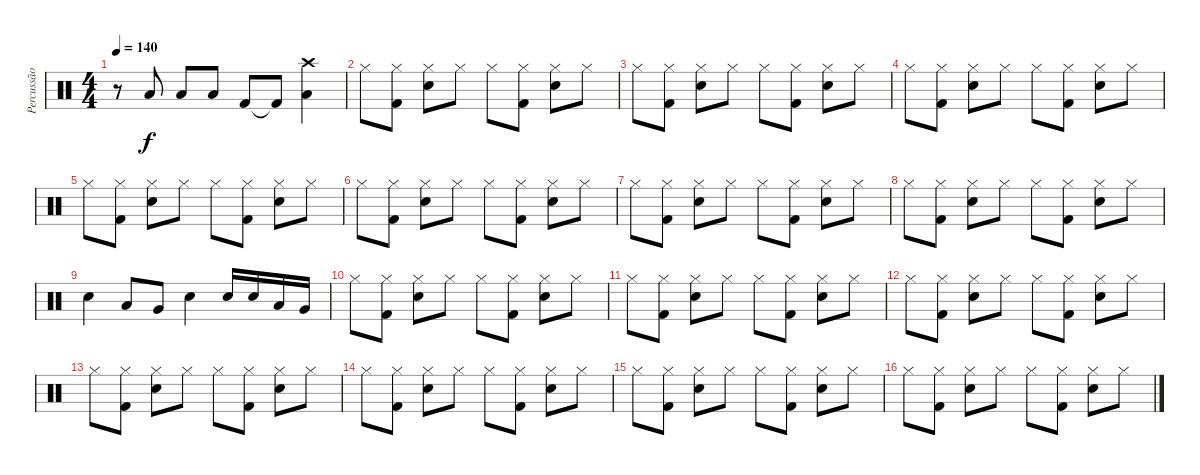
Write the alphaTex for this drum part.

\track ("Percussão" "Percussão") {instrument percussion}
\staff {score}
\articulation defaults
\ts (4 4)
\tempo 140
\clef neutral
\ks c
r.8{dy f} "Low Tom (hit)".8 "Low Tom (hit)".8 "Low Tom (hit)".8 "Kick (hit) 2".8 "Kick (hit) 2"{t}.8 ("Low Tom (hit)" "Crash high (hit)").4 |
"Hi-Hat (closed)".8 ("Kick (hit) 2" "Hi-Hat (closed)").8 ("Snare (hit) 2" "Hi-Hat (closed)").8 "Hi-Hat (closed)".8 "Hi-Hat (closed)".8 ("Kick (hit) 2" "Hi-Hat (closed)").8 ("Hi-Hat (closed)" "Snare (hit) 2").8 "Hi-Hat (closed)".8 |
"Hi-Hat (closed)".8 ("Kick (hit) 2" "Hi-Hat (closed)").8 ("Snare (hit) 2" "Hi-Hat (closed)").8 "Hi-Hat (closed)".8 "Hi-Hat (closed)".8 ("Kick (hit) 2" "Hi-Hat (closed)").8 ("Hi-Hat (closed)" "Snare (hit) 2").8 "Hi-Hat (closed)".8 |
"Hi-Hat (closed)".8 ("Kick (hit) 2" "Hi-Hat (closed)").8 ("Snare (hit) 2" "Hi-Hat (closed)").8 "Hi-Hat (closed)".8 "Hi-Hat (closed)".8 ("Kick (hit) 2" "Hi-Hat (closed)").8 ("Hi-Hat (closed)" "Snare (hit) 2").8 "Hi-Hat (closed)".8 |
"Hi-Hat (closed)".8 ("Kick (hit) 2" "Hi-Hat (closed)").8 ("Snare (hit) 2" "Hi-Hat (closed)").8 "Hi-Hat (closed)".8 "Hi-Hat (closed)".8 ("Kick (hit) 2" "Hi-Hat (closed)").8 ("Hi-Hat (closed)" "Snare (hit) 2").8 "Hi-Hat (closed)".8 |
"Hi-Hat (closed)".8 ("Kick (hit) 2" "Hi-Hat (closed)").8 ("Snare (hit) 2" "Hi-Hat (closed)").8 "Hi-Hat (closed)".8 "Hi-Hat (closed)".8 ("Kick (hit) 2" "Hi-Hat (closed)").8 ("Hi-Hat (closed)" "Snare (hit) 2").8 "Hi-Hat (closed)".8 |
"Hi-Hat (closed)".8 ("Kick (hit) 2" "Hi-Hat (closed)").8 ("Snare (hit) 2" "Hi-Hat (closed)").8 "Hi-Hat (closed)".8 "Hi-Hat (closed)".8 ("Kick (hit) 2" "Hi-Hat (closed)").8 ("Hi-Hat (closed)" "Snare (hit) 2").8 "Hi-Hat (closed)".8 |
"Hi-Hat (closed)".8 ("Kick (hit) 2" "Hi-Hat (closed)").8 ("Snare (hit) 2" "Hi-Hat (closed)").8 "Hi-Hat (closed)".8 "Hi-Hat (closed)".8 ("Kick (hit) 2" "Hi-Hat (closed)").8 ("Hi-Hat (closed)" "Snare (hit) 2").8 "Hi-Hat (closed)".8 |
"Snare (hit) 2".4 "Low Tom (hit)".8 "Very Low Tom (hit)".8 "Snare (hit) 2".4 "Snare (hit) 2".16 "Snare (hit) 2".16 "Low Tom (hit)".16 "Very Low Tom (hit)".16 |
"Hi-Hat (closed)".8 ("Kick (hit) 2" "Hi-Hat (closed)").8 ("Snare (hit) 2" "Hi-Hat (closed)").8 "Hi-Hat (closed)".8 "Hi-Hat (closed)".8 ("Kick (hit) 2" "Hi-Hat (closed)").8 ("Hi-Hat (closed)" "Snare (hit) 2").8 "Hi-Hat (closed)".8 |
"Hi-Hat (closed)".8 ("Kick (hit) 2" "Hi-Hat (closed)").8 ("Snare (hit) 2" "Hi-Hat (closed)").8 "Hi-Hat (closed)".8 "Hi-Hat (closed)".8 ("Kick (hit) 2" "Hi-Hat (closed)").8 ("Hi-Hat (closed)" "Snare (hit) 2").8 "Hi-Hat (closed)".8 |
"Hi-Hat (closed)".8 ("Kick (hit) 2" "Hi-Hat (closed)").8 ("Snare (hit) 2" "Hi-Hat (closed)").8 "Hi-Hat (closed)".8 "Hi-Hat (closed)".8 ("Kick (hit) 2" "Hi-Hat (closed)").8 ("Hi-Hat (closed)" "Snare (hit) 2").8 "Hi-Hat (closed)".8 |
"Hi-Hat (closed)".8 ("Kick (hit) 2" "Hi-Hat (closed)").8 ("Snare (hit) 2" "Hi-Hat (closed)").8 "Hi-Hat (closed)".8 "Hi-Hat (closed)".8 ("Kick (hit) 2" "Hi-Hat (closed)").8 ("Hi-Hat (closed)" "Snare (hit) 2").8 "Hi-Hat (closed)".8 |
"Hi-Hat (closed)".8 ("Kick (hit) 2" "Hi-Hat (closed)").8 ("Snare (hit) 2" "Hi-Hat (closed)").8 "Hi-Hat (closed)".8 "Hi-Hat (closed)".8 ("Kick (hit) 2" "Hi-Hat (closed)").8 ("Hi-Hat (closed)" "Snare (hit) 2").8 "Hi-Hat (closed)".8 |
"Hi-Hat (closed)".8 ("Kick (hit) 2" "Hi-Hat (closed)").8 ("Snare (hit) 2" "Hi-Hat (closed)").8 "Hi-Hat (closed)".8 "Hi-Hat (closed)".8 ("Kick (hit) 2" "Hi-Hat (closed)").8 ("Hi-Hat (closed)" "Snare (hit) 2").8 "Hi-Hat (closed)".8 |
"Hi-Hat (closed)".8 ("Kick (hit) 2" "Hi-Hat (closed)").8 ("Snare (hit) 2" "Hi-Hat (closed)").8 "Hi-Hat (closed)".8 "Hi-Hat (closed)".8 ("Kick (hit) 2" "Hi-Hat (closed)").8 ("Hi-Hat (closed)" "Snare (hit) 2").8 "Hi-Hat (closed)".8
